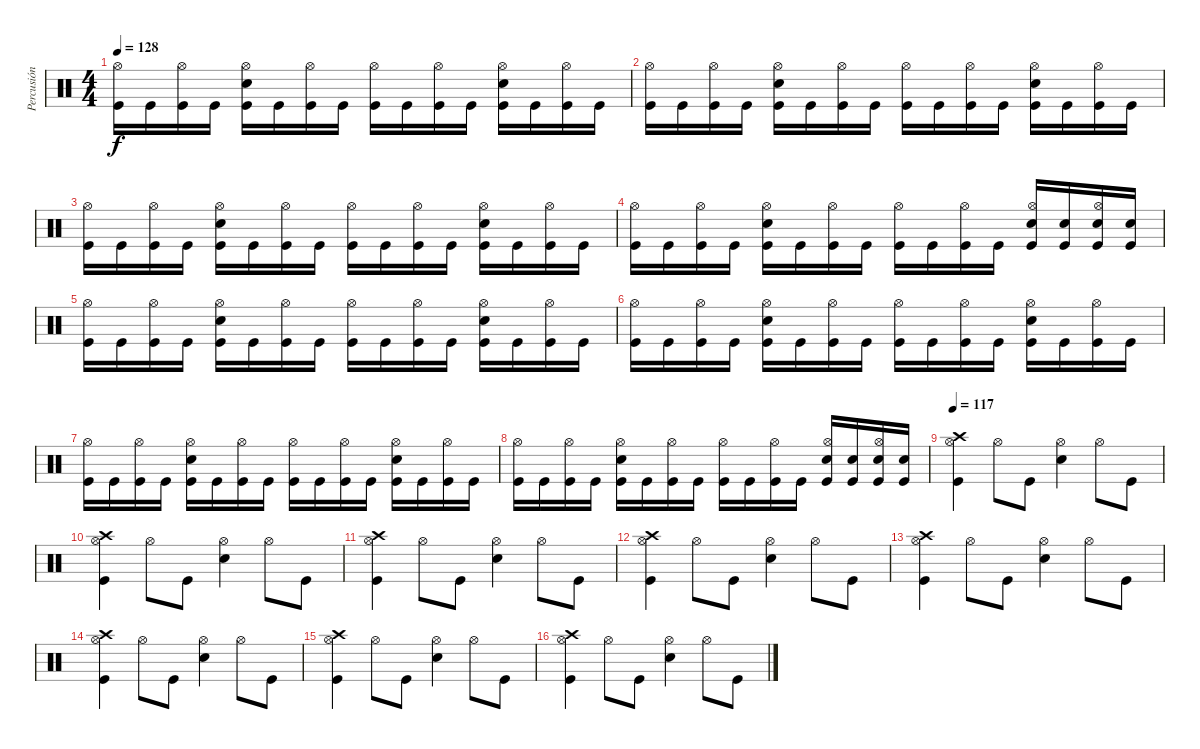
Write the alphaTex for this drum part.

\track ("Percusión" "Percusión") {instrument percussion}
\staff {score}
\articulation defaults
\ts (4 4)
\tempo 128
\clef neutral
\ks c
("Kick (hit)" "Hi-Hat (open)").16{dy f} "Kick (hit)".16 ("Kick (hit)" "Hi-Hat (open)").16 "Kick (hit)".16 ("Kick (hit)" "Hi-Hat (open)" "Snare (hit) 2").16 "Kick (hit)".16 ("Kick (hit)" "Hi-Hat (open)").16 "Kick (hit)".16 ("Kick (hit)" "Hi-Hat (open)").16 "Kick (hit)".16 ("Kick (hit)" "Hi-Hat (open)").16 "Kick (hit)".16 ("Kick (hit)" "Hi-Hat (open)" "Snare (hit) 2").16 "Kick (hit)".16 ("Kick (hit)" "Hi-Hat (open)").16 "Kick (hit)".16 |
("Kick (hit)" "Hi-Hat (open)").16 "Kick (hit)".16 ("Kick (hit)" "Hi-Hat (open)").16 "Kick (hit)".16 ("Kick (hit)" "Hi-Hat (open)" "Snare (hit) 2").16 "Kick (hit)".16 ("Kick (hit)" "Hi-Hat (open)").16 "Kick (hit)".16 ("Kick (hit)" "Hi-Hat (open)").16 "Kick (hit)".16 ("Kick (hit)" "Hi-Hat (open)").16 "Kick (hit)".16 ("Kick (hit)" "Hi-Hat (open)" "Snare (hit) 2").16 "Kick (hit)".16 ("Kick (hit)" "Hi-Hat (open)").16 "Kick (hit)".16 |
("Kick (hit)" "Hi-Hat (open)").16 "Kick (hit)".16 ("Kick (hit)" "Hi-Hat (open)").16 "Kick (hit)".16 ("Kick (hit)" "Hi-Hat (open)" "Snare (hit) 2").16 "Kick (hit)".16 ("Kick (hit)" "Hi-Hat (open)").16 "Kick (hit)".16 ("Kick (hit)" "Hi-Hat (open)").16 "Kick (hit)".16 ("Kick (hit)" "Hi-Hat (open)").16 "Kick (hit)".16 ("Kick (hit)" "Hi-Hat (open)" "Snare (hit) 2").16 "Kick (hit)".16 ("Kick (hit)" "Hi-Hat (open)").16 "Kick (hit)".16 |
("Kick (hit)" "Hi-Hat (open)").16 "Kick (hit)".16 ("Kick (hit)" "Hi-Hat (open)").16 "Kick (hit)".16 ("Kick (hit)" "Hi-Hat (open)" "Snare (hit) 2").16 "Kick (hit)".16 ("Kick (hit)" "Hi-Hat (open)").16 "Kick (hit)".16 ("Kick (hit)" "Hi-Hat (open)").16 "Kick (hit)".16 ("Kick (hit)" "Hi-Hat (open)").16 "Kick (hit)".16 ("Kick (hit)" "Hi-Hat (open)" "Snare (hit) 2").16 ("Kick (hit)" "Snare (hit) 2").16 ("Kick (hit)" "Hi-Hat (open)" "Snare (hit) 2").16 ("Kick (hit)" "Snare (hit) 2").16 |
("Kick (hit)" "Hi-Hat (open)").16 "Kick (hit)".16 ("Kick (hit)" "Hi-Hat (open)").16 "Kick (hit)".16 ("Kick (hit)" "Hi-Hat (open)" "Snare (hit) 2").16 "Kick (hit)".16 ("Kick (hit)" "Hi-Hat (open)").16 "Kick (hit)".16 ("Kick (hit)" "Hi-Hat (open)").16 "Kick (hit)".16 ("Kick (hit)" "Hi-Hat (open)").16 "Kick (hit)".16 ("Kick (hit)" "Hi-Hat (open)" "Snare (hit) 2").16 "Kick (hit)".16 ("Kick (hit)" "Hi-Hat (open)").16 "Kick (hit)".16 |
("Kick (hit)" "Hi-Hat (open)").16 "Kick (hit)".16 ("Kick (hit)" "Hi-Hat (open)").16 "Kick (hit)".16 ("Kick (hit)" "Hi-Hat (open)" "Snare (hit) 2").16 "Kick (hit)".16 ("Kick (hit)" "Hi-Hat (open)").16 "Kick (hit)".16 ("Kick (hit)" "Hi-Hat (open)").16 "Kick (hit)".16 ("Kick (hit)" "Hi-Hat (open)").16 "Kick (hit)".16 ("Kick (hit)" "Hi-Hat (open)" "Snare (hit) 2").16 "Kick (hit)".16 ("Kick (hit)" "Hi-Hat (open)").16 "Kick (hit)".16 |
("Kick (hit)" "Hi-Hat (open)").16 "Kick (hit)".16 ("Kick (hit)" "Hi-Hat (open)").16 "Kick (hit)".16 ("Kick (hit)" "Hi-Hat (open)" "Snare (hit) 2").16 "Kick (hit)".16 ("Kick (hit)" "Hi-Hat (open)").16 "Kick (hit)".16 ("Kick (hit)" "Hi-Hat (open)").16 "Kick (hit)".16 ("Kick (hit)" "Hi-Hat (open)").16 "Kick (hit)".16 ("Kick (hit)" "Hi-Hat (open)" "Snare (hit) 2").16 "Kick (hit)".16 ("Kick (hit)" "Hi-Hat (open)").16 "Kick (hit)".16 |
("Kick (hit)" "Hi-Hat (open)").16 "Kick (hit)".16 ("Kick (hit)" "Hi-Hat (open)").16 "Kick (hit)".16 ("Kick (hit)" "Hi-Hat (open)" "Snare (hit) 2").16 "Kick (hit)".16 ("Kick (hit)" "Hi-Hat (open)").16 "Kick (hit)".16 ("Kick (hit)" "Hi-Hat (open)").16 "Kick (hit)".16 ("Kick (hit)" "Hi-Hat (open)").16 "Kick (hit)".16 ("Kick (hit)" "Hi-Hat (open)" "Snare (hit) 2").16 ("Kick (hit)" "Snare (hit) 2").16 ("Kick (hit)" "Hi-Hat (open)" "Snare (hit) 2").16 ("Kick (hit)" "Snare (hit) 2").16 |
\tempo 117
("Kick (hit)" "Hi-Hat (open)" "Crash high (hit)").4 "Hi-Hat (open)".8 "Kick (hit)".8 ("Hi-Hat (open)" "Snare (hit) 2").4 "Hi-Hat (open)".8 "Kick (hit)".8 |
("Kick (hit)" "Hi-Hat (open)" "Crash high (hit)").4 "Hi-Hat (open)".8 "Kick (hit)".8 ("Hi-Hat (open)" "Snare (hit) 2").4 "Hi-Hat (open)".8 "Kick (hit)".8 |
("Kick (hit)" "Hi-Hat (open)" "Crash high (hit)").4 "Hi-Hat (open)".8 "Kick (hit)".8 ("Hi-Hat (open)" "Snare (hit) 2").4 "Hi-Hat (open)".8 "Kick (hit)".8 |
("Kick (hit)" "Hi-Hat (open)" "Crash high (hit)").4 "Hi-Hat (open)".8 "Kick (hit)".8 ("Hi-Hat (open)" "Snare (hit) 2").4 "Hi-Hat (open)".8 "Kick (hit)".8 |
("Kick (hit)" "Hi-Hat (open)" "Crash high (hit)").4 "Hi-Hat (open)".8 "Kick (hit)".8 ("Hi-Hat (open)" "Snare (hit) 2").4 "Hi-Hat (open)".8 "Kick (hit)".8 |
("Kick (hit)" "Hi-Hat (open)" "Crash high (hit)").4 "Hi-Hat (open)".8 "Kick (hit)".8 ("Hi-Hat (open)" "Snare (hit) 2").4 "Hi-Hat (open)".8 "Kick (hit)".8 |
("Kick (hit)" "Hi-Hat (open)" "Crash high (hit)").4 "Hi-Hat (open)".8 "Kick (hit)".8 ("Hi-Hat (open)" "Snare (hit) 2").4 "Hi-Hat (open)".8 "Kick (hit)".8 |
("Kick (hit)" "Hi-Hat (open)" "Crash high (hit)").4 "Hi-Hat (open)".8 "Kick (hit)".8 ("Hi-Hat (open)" "Snare (hit) 2").4 "Hi-Hat (open)".8 "Kick (hit)".8
